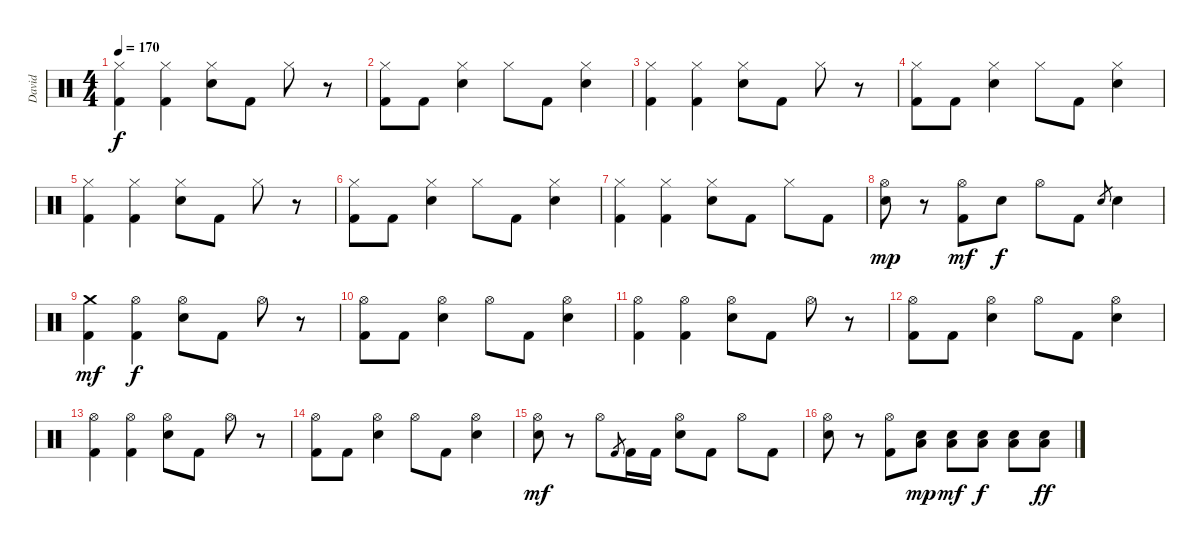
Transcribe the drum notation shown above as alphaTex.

\track ("David" "David") {instrument percussion}
\staff {score}
\articulation defaults
\ts (4 4)
\tempo 170
\clef neutral
\ks c
("Hi-Hat (closed)" "Kick (hit) 2").4{dy f} ("Hi-Hat (closed)" "Kick (hit) 2").4 ("Hi-Hat (closed)" "Snare (hit) 2").8 "Kick (hit) 2".8 "Hi-Hat (closed)".8 r.8 |
("Hi-Hat (closed)" "Kick (hit) 2").8 "Kick (hit) 2".8 ("Hi-Hat (closed)" "Snare (hit) 2").4 "Hi-Hat (closed)".8 "Kick (hit) 2".8 ("Hi-Hat (closed)" "Snare (hit) 2").4 |
("Hi-Hat (closed)" "Kick (hit) 2").4 ("Hi-Hat (closed)" "Kick (hit) 2").4 ("Hi-Hat (closed)" "Snare (hit) 2").8 "Kick (hit) 2".8 "Hi-Hat (closed)".8 r.8 |
("Hi-Hat (closed)" "Kick (hit) 2").8 "Kick (hit) 2".8 ("Hi-Hat (closed)" "Snare (hit) 2").4 "Hi-Hat (closed)".8 "Kick (hit) 2".8 ("Hi-Hat (closed)" "Snare (hit) 2").4 |
("Hi-Hat (closed)" "Kick (hit) 2").4 ("Hi-Hat (closed)" "Kick (hit) 2").4 ("Hi-Hat (closed)" "Snare (hit) 2").8 "Kick (hit) 2".8 "Hi-Hat (closed)".8 r.8 |
("Hi-Hat (closed)" "Kick (hit) 2").8 "Kick (hit) 2".8 ("Hi-Hat (closed)" "Snare (hit) 2").4 "Hi-Hat (closed)".8 "Kick (hit) 2".8 ("Hi-Hat (closed)" "Snare (hit) 2").4 |
("Hi-Hat (closed)" "Kick (hit) 2").4 ("Hi-Hat (closed)" "Kick (hit) 2").4 ("Hi-Hat (closed)" "Snare (hit) 2").8 "Kick (hit) 2".8 "Hi-Hat (closed)".8 "Kick (hit) 2".8 |
("Hi-Hat (open)" "Snare (hit) 2").8{dy mp} r.8 ("Hi-Hat (open)" "Kick (hit) 2").8{dy mf} "Snare (hit) 2".8{dy f} "Hi-Hat (open)".8 "Kick (hit) 2".8 "Snare (hit) 2".8{gr} "Snare (hit) 2".4 |
("Crash medium (hit)" "Kick (hit) 2").4{dy mf} ("Hi-Hat (open)" "Kick (hit) 2").4{dy f} ("Hi-Hat (open)" "Snare (hit) 2").8 "Kick (hit) 2".8 "Hi-Hat (open)".8 r.8 |
("Hi-Hat (open)" "Kick (hit) 2").8 "Kick (hit) 2".8 ("Hi-Hat (open)" "Snare (hit) 2").4 "Hi-Hat (open)".8 "Kick (hit) 2".8 ("Hi-Hat (open)" "Snare (hit) 2").4 |
("Hi-Hat (open)" "Kick (hit) 2").4 ("Hi-Hat (open)" "Kick (hit) 2").4 ("Hi-Hat (open)" "Snare (hit) 2").8 "Kick (hit) 2".8 "Hi-Hat (open)".8 r.8 |
("Hi-Hat (open)" "Kick (hit) 2").8 "Kick (hit) 2".8 ("Hi-Hat (open)" "Snare (hit) 2").4 "Hi-Hat (open)".8 "Kick (hit) 2".8 ("Hi-Hat (open)" "Snare (hit) 2").4 |
("Hi-Hat (open)" "Kick (hit) 2").4 ("Hi-Hat (open)" "Kick (hit) 2").4 ("Hi-Hat (open)" "Snare (hit) 2").8 "Kick (hit) 2".8 "Hi-Hat (open)".8 r.8 |
("Hi-Hat (open)" "Kick (hit) 2").8 "Kick (hit) 2".8 ("Hi-Hat (open)" "Snare (hit) 2").4 "Hi-Hat (open)".8 "Kick (hit) 2".8 ("Hi-Hat (open)" "Snare (hit) 2").4 |
("Hi-Hat (open)" "Snare (hit) 2").8{dy mf} r.8 "Hi-Hat (open)".8 "Kick (hit) 2".8{gr} "Kick (hit) 2".16 "Kick (hit) 2".16 ("Hi-Hat (open)" "Snare (hit) 2").8 "Kick (hit) 2".8 "Hi-Hat (open)".8 "Kick (hit) 2".8 |
("Hi-Hat (open)" "Snare (hit) 2").8 r.8 ("Hi-Hat (open)" "Kick (hit) 2").8 ("Snare (hit) 2" "Low Floor Tom (hit)").8{dy mp} ("Snare (hit) 2" "Low Floor Tom (hit)").8{dy mf} ("Snare (hit) 2" "Low Floor Tom (hit)").8{dy f} ("Snare (hit) 2" "Low Floor Tom (hit)").8 ("Snare (hit) 2" "Low Floor Tom (hit)").8{dy ff}
